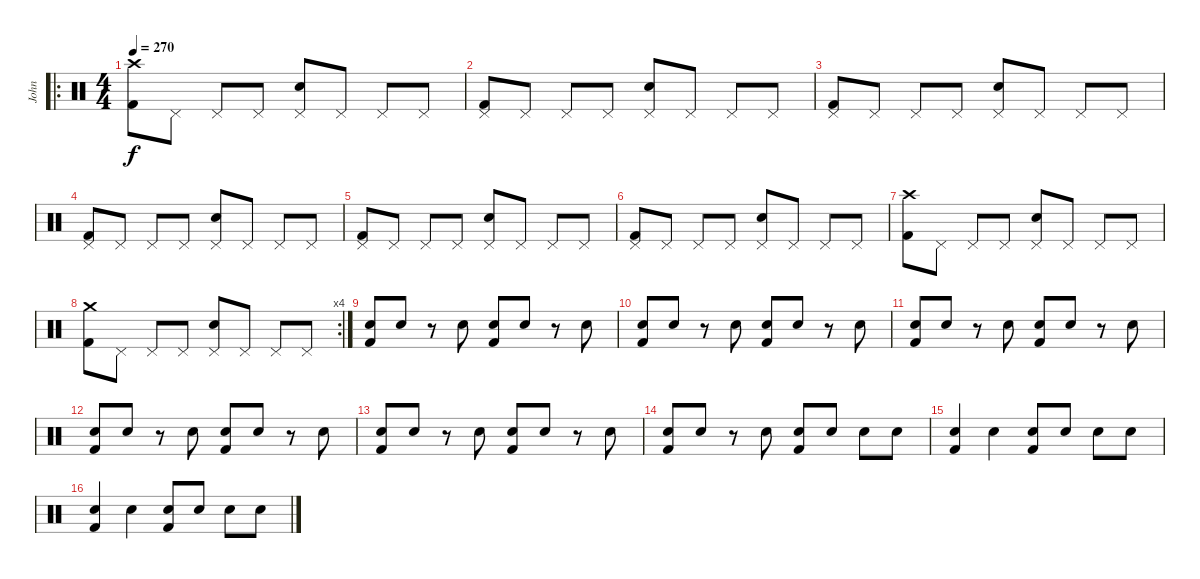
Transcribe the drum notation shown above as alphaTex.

\track ("John" "John") {instrument percussion}
\staff {score}
\articulation defaults
\ro
\ts (4 4)
\tempo 270
\clef neutral
\ks c
("Crash high (hit)" "Kick (hit) 2").8{dy f} "Pedal Hi-Hat (hit)".8 "Pedal Hi-Hat (hit)".8 "Pedal Hi-Hat (hit)".8 ("Pedal Hi-Hat (hit)" "Electric Snare (hit)").8 "Pedal Hi-Hat (hit)".8 "Pedal Hi-Hat (hit)".8 "Pedal Hi-Hat (hit)".8 |
("Pedal Hi-Hat (hit)" "Kick (hit) 2").8 "Pedal Hi-Hat (hit)".8 "Pedal Hi-Hat (hit)".8 "Pedal Hi-Hat (hit)".8 ("Pedal Hi-Hat (hit)" "Electric Snare (hit)").8 "Pedal Hi-Hat (hit)".8 "Pedal Hi-Hat (hit)".8 "Pedal Hi-Hat (hit)".8 |
("Pedal Hi-Hat (hit)" "Kick (hit) 2").8 "Pedal Hi-Hat (hit)".8 "Pedal Hi-Hat (hit)".8 "Pedal Hi-Hat (hit)".8 ("Pedal Hi-Hat (hit)" "Electric Snare (hit)").8 "Pedal Hi-Hat (hit)".8 "Pedal Hi-Hat (hit)".8 "Pedal Hi-Hat (hit)".8 |
("Pedal Hi-Hat (hit)" "Kick (hit) 2").8 "Pedal Hi-Hat (hit)".8 "Pedal Hi-Hat (hit)".8 "Pedal Hi-Hat (hit)".8 ("Pedal Hi-Hat (hit)" "Electric Snare (hit)").8 "Pedal Hi-Hat (hit)".8 "Pedal Hi-Hat (hit)".8 "Pedal Hi-Hat (hit)".8 |
("Pedal Hi-Hat (hit)" "Kick (hit) 2").8 "Pedal Hi-Hat (hit)".8 "Pedal Hi-Hat (hit)".8 "Pedal Hi-Hat (hit)".8 ("Pedal Hi-Hat (hit)" "Electric Snare (hit)").8 "Pedal Hi-Hat (hit)".8 "Pedal Hi-Hat (hit)".8 "Pedal Hi-Hat (hit)".8 |
("Pedal Hi-Hat (hit)" "Kick (hit) 2").8 "Pedal Hi-Hat (hit)".8 "Pedal Hi-Hat (hit)".8 "Pedal Hi-Hat (hit)".8 ("Pedal Hi-Hat (hit)" "Electric Snare (hit)").8 "Pedal Hi-Hat (hit)".8 "Pedal Hi-Hat (hit)".8 "Pedal Hi-Hat (hit)".8 |
("Crash high (hit)" "Kick (hit) 2").8 "Pedal Hi-Hat (hit)".8 "Pedal Hi-Hat (hit)".8 "Pedal Hi-Hat (hit)".8 ("Pedal Hi-Hat (hit)" "Electric Snare (hit)").8 "Pedal Hi-Hat (hit)".8 "Pedal Hi-Hat (hit)".8 "Pedal Hi-Hat (hit)".8 |
\rc 4
("Crash medium (hit)" "Kick (hit) 2").8 "Pedal Hi-Hat (hit)".8 "Pedal Hi-Hat (hit)".8 "Pedal Hi-Hat (hit)".8 ("Pedal Hi-Hat (hit)" "Electric Snare (hit)").8 "Pedal Hi-Hat (hit)".8 "Pedal Hi-Hat (hit)".8 "Pedal Hi-Hat (hit)".8 |
("Electric Snare (hit)" "Kick (hit) 2").8 "Electric Snare (hit)".8 r.8 "Electric Snare (hit)".8 ("Electric Snare (hit)" "Kick (hit) 2").8 "Electric Snare (hit)".8 r.8 "Electric Snare (hit)".8 |
("Electric Snare (hit)" "Kick (hit) 2").8 "Electric Snare (hit)".8 r.8 "Electric Snare (hit)".8 ("Electric Snare (hit)" "Kick (hit) 2").8 "Electric Snare (hit)".8 r.8 "Electric Snare (hit)".8 |
("Electric Snare (hit)" "Kick (hit) 2").8 "Electric Snare (hit)".8 r.8 "Electric Snare (hit)".8 ("Electric Snare (hit)" "Kick (hit) 2").8 "Electric Snare (hit)".8 r.8 "Electric Snare (hit)".8 |
("Electric Snare (hit)" "Kick (hit) 2").8 "Electric Snare (hit)".8 r.8 "Electric Snare (hit)".8 ("Electric Snare (hit)" "Kick (hit) 2").8 "Electric Snare (hit)".8 r.8 "Electric Snare (hit)".8 |
("Electric Snare (hit)" "Kick (hit) 2").8 "Electric Snare (hit)".8 r.8 "Electric Snare (hit)".8 ("Electric Snare (hit)" "Kick (hit) 2").8 "Electric Snare (hit)".8 r.8 "Electric Snare (hit)".8 |
("Electric Snare (hit)" "Kick (hit) 2").8 "Electric Snare (hit)".8 r.8 "Electric Snare (hit)".8 ("Electric Snare (hit)" "Kick (hit) 2").8 "Electric Snare (hit)".8 "Electric Snare (hit)".8 "Electric Snare (hit)".8 |
("Electric Snare (hit)" "Kick (hit) 2").4 "Electric Snare (hit)".4 ("Electric Snare (hit)" "Kick (hit) 2").8 "Electric Snare (hit)".8 "Electric Snare (hit)".8 "Electric Snare (hit)".8 |
("Electric Snare (hit)" "Kick (hit) 2").4 "Electric Snare (hit)".4 ("Electric Snare (hit)" "Kick (hit) 2").8 "Electric Snare (hit)".8 "Electric Snare (hit)".8 "Electric Snare (hit)".8
